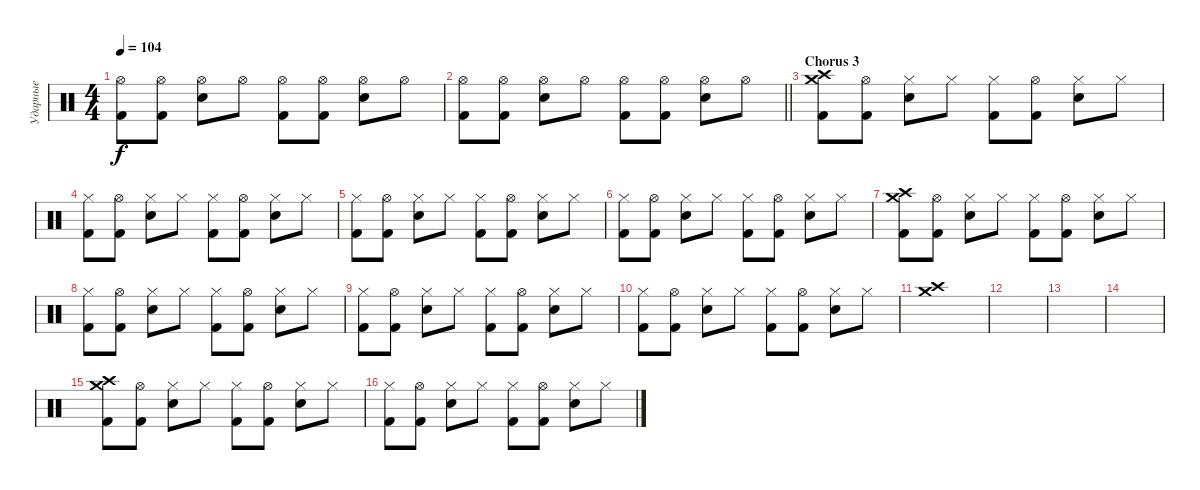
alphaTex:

\track ("Ударные" "Ударные") {instrument percussion}
\staff {score}
\articulation defaults
\ts (4 4)
\tempo 104
\clef neutral
\ks c
("Hi-Hat (open)" "Kick (hit) 2").8{dy f} ("Hi-Hat (open)" "Kick (hit) 2").8 ("Hi-Hat (open)" "Electric Snare (hit)").8 "Hi-Hat (open)".8 ("Hi-Hat (open)" "Kick (hit) 2").8 ("Hi-Hat (open)" "Kick (hit) 2").8 ("Hi-Hat (open)" "Electric Snare (hit)").8 "Hi-Hat (open)".8 |
\barLineRight lightlight
("Hi-Hat (open)" "Kick (hit) 2").8 ("Hi-Hat (open)" "Kick (hit) 2").8 ("Hi-Hat (open)" "Electric Snare (hit)").8 "Hi-Hat (open)".8 ("Hi-Hat (open)" "Kick (hit) 2").8 ("Hi-Hat (open)" "Kick (hit) 2").8 ("Hi-Hat (open)" "Electric Snare (hit)").8 "Hi-Hat (open)".8 |
\section ("" "Chorus 3")
("Crash high (hit)" "Crash medium (hit)" "Kick (hit) 2").8 ("Hi-Hat (open)" "Kick (hit) 2").8 ("Hi-Hat (closed)" "Electric Snare (hit)").8 "Hi-Hat (closed)".8 ("Hi-Hat (closed)" "Kick (hit) 2").8 ("Hi-Hat (open)" "Kick (hit) 2").8 ("Hi-Hat (closed)" "Electric Snare (hit)").8 "Hi-Hat (closed)".8 |
("Hi-Hat (closed)" "Kick (hit) 2").8 ("Hi-Hat (open)" "Kick (hit) 2").8 ("Hi-Hat (closed)" "Electric Snare (hit)").8 "Hi-Hat (closed)".8 ("Hi-Hat (closed)" "Kick (hit) 2").8 ("Hi-Hat (open)" "Kick (hit) 2").8 ("Hi-Hat (closed)" "Electric Snare (hit)").8 "Hi-Hat (closed)".8 |
("Hi-Hat (closed)" "Kick (hit) 2").8 ("Hi-Hat (open)" "Kick (hit) 2").8 ("Hi-Hat (closed)" "Electric Snare (hit)").8 "Hi-Hat (closed)".8 ("Hi-Hat (closed)" "Kick (hit) 2").8 ("Hi-Hat (open)" "Kick (hit) 2").8 ("Hi-Hat (closed)" "Electric Snare (hit)").8 "Hi-Hat (closed)".8 |
("Hi-Hat (closed)" "Kick (hit) 2").8 ("Hi-Hat (open)" "Kick (hit) 2").8 ("Hi-Hat (closed)" "Electric Snare (hit)").8 "Hi-Hat (closed)".8 ("Hi-Hat (closed)" "Kick (hit) 2").8 ("Hi-Hat (open)" "Kick (hit) 2").8 ("Hi-Hat (closed)" "Electric Snare (hit)").8 "Hi-Hat (closed)".8 |
("Crash high (hit)" "Crash medium (hit)" "Kick (hit) 2").8 ("Hi-Hat (open)" "Kick (hit) 2").8 ("Hi-Hat (closed)" "Electric Snare (hit)").8 "Hi-Hat (closed)".8 ("Hi-Hat (closed)" "Kick (hit) 2").8 ("Hi-Hat (open)" "Kick (hit) 2").8 ("Hi-Hat (closed)" "Electric Snare (hit)").8 "Hi-Hat (closed)".8 |
("Hi-Hat (closed)" "Kick (hit) 2").8 ("Hi-Hat (open)" "Kick (hit) 2").8 ("Hi-Hat (closed)" "Electric Snare (hit)").8 "Hi-Hat (closed)".8 ("Hi-Hat (closed)" "Kick (hit) 2").8 ("Hi-Hat (open)" "Kick (hit) 2").8 ("Hi-Hat (closed)" "Electric Snare (hit)").8 "Hi-Hat (closed)".8 |
("Hi-Hat (closed)" "Kick (hit) 2").8 ("Hi-Hat (open)" "Kick (hit) 2").8 ("Hi-Hat (closed)" "Electric Snare (hit)").8 "Hi-Hat (closed)".8 ("Hi-Hat (closed)" "Kick (hit) 2").8 ("Hi-Hat (open)" "Kick (hit) 2").8 ("Hi-Hat (closed)" "Electric Snare (hit)").8 "Hi-Hat (closed)".8 |
("Hi-Hat (closed)" "Kick (hit) 2").8 ("Hi-Hat (open)" "Kick (hit) 2").8 ("Hi-Hat (closed)" "Electric Snare (hit)").8 "Hi-Hat (closed)".8 ("Hi-Hat (closed)" "Kick (hit) 2").8 ("Hi-Hat (open)" "Kick (hit) 2").8 ("Hi-Hat (closed)" "Electric Snare (hit)").8 "Hi-Hat (closed)".8 |
("Crash high (hit)" "Crash medium (hit)").1 |
|
|
|
("Crash high (hit)" "Crash medium (hit)" "Kick (hit) 2").8 ("Hi-Hat (open)" "Kick (hit) 2").8 ("Hi-Hat (closed)" "Electric Snare (hit)").8 "Hi-Hat (closed)".8 ("Hi-Hat (closed)" "Kick (hit) 2").8 ("Hi-Hat (open)" "Kick (hit) 2").8 ("Hi-Hat (closed)" "Electric Snare (hit)").8 "Hi-Hat (closed)".8 |
("Hi-Hat (closed)" "Kick (hit) 2").8 ("Hi-Hat (open)" "Kick (hit) 2").8 ("Hi-Hat (closed)" "Electric Snare (hit)").8 "Hi-Hat (closed)".8 ("Hi-Hat (closed)" "Kick (hit) 2").8 ("Hi-Hat (open)" "Kick (hit) 2").8 ("Hi-Hat (closed)" "Electric Snare (hit)").8 "Hi-Hat (closed)".8
